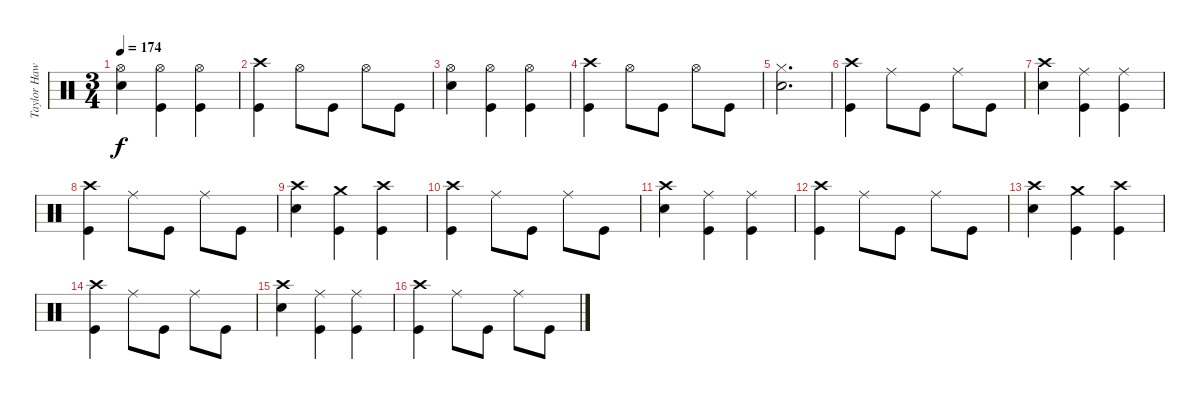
\track ("Taylor Hawkins - Drums" "Taylor Haw") {instrument percussion}
\staff {score}
\articulation defaults
\ts (3 4)
\tempo 174
\clef neutral
\ks c
("Hi-Hat (open)" "Snare (hit) 2").4{dy f} ("Hi-Hat (open)" "Kick (hit)").4 ("Hi-Hat (open)" "Kick (hit)").4 |
("Crash high (hit)" "Kick (hit)").4 "Hi-Hat (open)".8 "Kick (hit)".8 "Hi-Hat (open)".8 "Kick (hit)".8 |
("Hi-Hat (open)" "Snare (hit) 2").4 ("Hi-Hat (open)" "Kick (hit)").4 ("Hi-Hat (open)" "Kick (hit)").4 |
("Crash high (hit)" "Kick (hit)").4 "Hi-Hat (open)".8 "Kick (hit)".8 "Hi-Hat (open)".8 "Kick (hit)".8 |
("Hi-Hat (closed)" "Snare (hit) 2").2{d} |
("Crash high (hit)" "Kick (hit)").4 "Ride (middle)".8 "Kick (hit)".8 "Ride (middle)".8 "Kick (hit)".8 |
("Crash high (hit)" "Snare (hit) 2").4 ("Ride (middle)" "Kick (hit)").4 ("Ride (middle)" "Kick (hit)").4 |
("Crash high (hit)" "Kick (hit)").4 "Ride (middle)".8 "Kick (hit)".8 "Ride (middle)".8 "Kick (hit)".8 |
("Crash high (hit)" "Snare (hit) 2").4 ("Crash medium (hit)" "Kick (hit)").4 ("Crash high (hit)" "Kick (hit)").4 |
("Crash high (hit)" "Kick (hit)").4 "Ride (middle)".8 "Kick (hit)".8 "Ride (middle)".8 "Kick (hit)".8 |
("Crash high (hit)" "Snare (hit) 2").4 ("Ride (middle)" "Kick (hit)").4 ("Ride (middle)" "Kick (hit)").4 |
("Crash high (hit)" "Kick (hit)").4 "Ride (middle)".8 "Kick (hit)".8 "Ride (middle)".8 "Kick (hit)".8 |
("Crash high (hit)" "Snare (hit) 2").4 ("Crash medium (hit)" "Kick (hit)").4 ("Crash high (hit)" "Kick (hit)").4 |
("Crash high (hit)" "Kick (hit)").4 "Ride (middle)".8 "Kick (hit)".8 "Ride (middle)".8 "Kick (hit)".8 |
("Crash high (hit)" "Snare (hit) 2").4 ("Ride (middle)" "Kick (hit)").4 ("Ride (middle)" "Kick (hit)").4 |
("Crash high (hit)" "Kick (hit)").4 "Ride (middle)".8 "Kick (hit)".8 "Ride (middle)".8 "Kick (hit)".8
